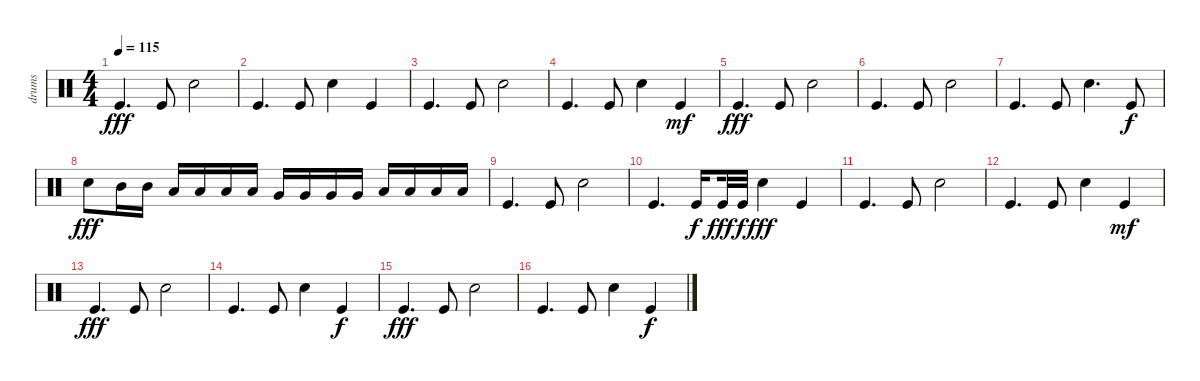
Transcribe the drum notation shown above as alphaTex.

\track ("drums" "drums") {instrument percussion}
\staff {score}
\articulation defaults
\ts (4 4)
\tempo 115
\clef neutral
\ks c "Kick (hit)".4{d dy fff} "Kick (hit)".8 "Electric Snare (hit)".2
|
"Kick (hit)".4{d} "Kick (hit)".8 "Electric Snare (hit)".4 "Kick (hit)".4 |
"Kick (hit)".4{d} "Kick (hit)".8 "Electric Snare (hit)".2 |
"Kick (hit)".4{d} "Kick (hit)".8 "Electric Snare (hit)".4 "Kick (hit)".4{dy mf} |
"Kick (hit)".4{d dy fff} "Kick (hit)".8 "Electric Snare (hit)".2 |
"Kick (hit)".4{d} "Kick (hit)".8 "Electric Snare (hit)".2 |
"Kick (hit)".4{d} "Kick (hit)".8 "Electric Snare (hit)".4{d} "Kick (hit)".8{dy f} |
"Electric Snare (hit)".8{dy fff} "Mid Tom (hit)".16 "Mid Tom (hit)".16 "Low Tom (hit)".16 "Low Tom (hit)".16 "Low Tom (hit)".16 "Low Tom (hit)".16 "Very Low Tom (hit)".16 "Very Low Tom (hit)".16 "Very Low Tom (hit)".16 "Very Low Tom (hit)".16 "Low Floor Tom (hit)".16 "Low Floor Tom (hit)".16 "Low Floor Tom (hit)".16 "Low Floor Tom (hit)".16 |
"Kick (hit)".4{d} "Kick (hit)".8 "Electric Snare (hit)".2 |
"Kick (hit)".4{d} "Kick (hit)".16{dy f beam splitsecondary} "Kick (hit)".32{dy fff} "Kick (hit)".32{dy f} "Electric Snare (hit)".4{dy fff} "Kick (hit)".4 |
"Kick (hit)".4{d} "Kick (hit)".8 "Electric Snare (hit)".2 |
"Kick (hit)".4{d} "Kick (hit)".8 "Electric Snare (hit)".4 "Kick (hit)".4{dy mf} |
"Kick (hit)".4{d dy fff} "Kick (hit)".8 "Electric Snare (hit)".2 |
"Kick (hit)".4{d} "Kick (hit)".8 "Electric Snare (hit)".4 "Kick (hit)".4{dy f} |
"Kick (hit)".4{d dy fff} "Kick (hit)".8 "Electric Snare (hit)".2 |
"Kick (hit)".4{d} "Kick (hit)".8 "Electric Snare (hit)".4 "Kick (hit)".4{dy f}
